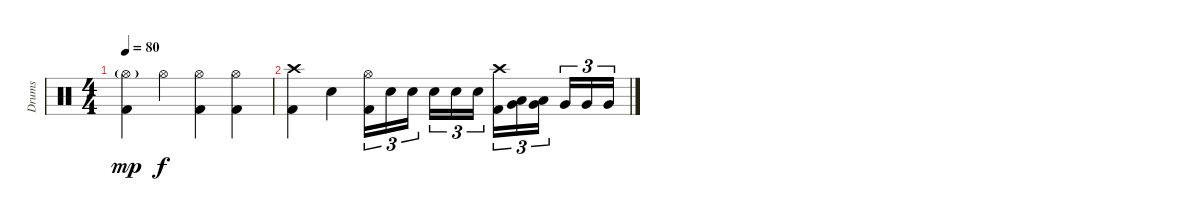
\track ("Drums" "Drums") {instrument percussion}
\staff {score}
\articulation defaults
\ts (4 4)
\tempo 80
\clef neutral
\ks c
("Hi-Hat (open)"{g} "Kick (hit) 2").4{dy mp} "Hi-Hat (open)".4{dy f} ("Hi-Hat (open)" "Kick (hit) 2").4 ("Hi-Hat (open)" "Kick (hit) 2").4 |
("Crash high (hit)" "Kick (hit) 2").4 "Electric Snare (hit)".4 ("Hi-Hat (open)" "Kick (hit) 2").16{tu (3 2)} "Electric Snare (hit)".16{tu (3 2)} "Electric Snare (hit)".16{tu (3 2) beam splitsecondary} "Electric Snare (hit)".16{tu (3 2)} "Electric Snare (hit)".16{tu (3 2)} "Electric Snare (hit)".16{tu (3 2)} ("Crash high (hit)" "Kick (hit) 2").16{tu (3 2)} ("Low Floor Tom (hit)" "Very Low Tom (hit)").16{tu (3 2)} ("Low Floor Tom (hit)" "Very Low Tom (hit)").16{tu (3 2) beam splitsecondary} "Very Low Tom (hit)".16{tu (3 2)} "Very Low Tom (hit)".16{tu (3 2)} "Very Low Tom (hit)".16{tu (3 2)}
